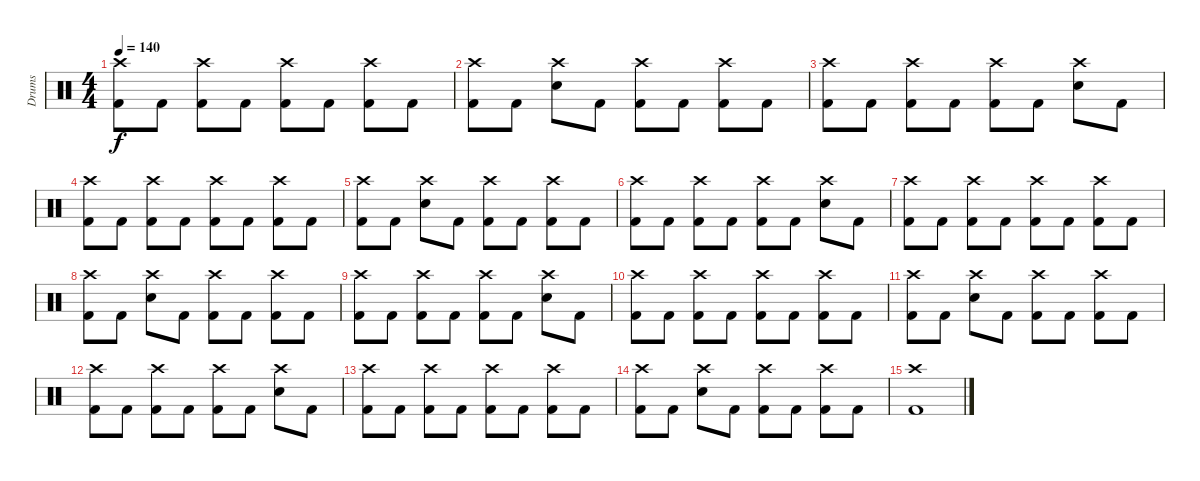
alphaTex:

\track ("Drums" "Drums") {instrument percussion}
\staff {score}
\articulation defaults
\ts (4 4)
\tempo 140
\clef neutral
\ks c
("Kick (hit) 2" "Crash high (hit)").8{dy f} "Kick (hit) 2".8 ("Kick (hit) 2" "Crash high (hit)").8 "Kick (hit) 2".8 ("Kick (hit) 2" "Crash high (hit)").8 "Kick (hit) 2".8 ("Kick (hit) 2" "Crash high (hit)").8 "Kick (hit) 2".8 |
("Kick (hit) 2" "Crash high (hit)").8 "Kick (hit) 2".8 ("Crash high (hit)" "Electric Snare (hit)").8 "Kick (hit) 2".8 ("Kick (hit) 2" "Crash high (hit)").8 "Kick (hit) 2".8 ("Kick (hit) 2" "Crash high (hit)").8 "Kick (hit) 2".8 |
("Kick (hit) 2" "Crash high (hit)").8 "Kick (hit) 2".8 ("Kick (hit) 2" "Crash high (hit)").8 "Kick (hit) 2".8 ("Kick (hit) 2" "Crash high (hit)").8 "Kick (hit) 2".8 ("Crash high (hit)" "Electric Snare (hit)").8 "Kick (hit) 2".8 |
("Kick (hit) 2" "Crash high (hit)").8 "Kick (hit) 2".8 ("Kick (hit) 2" "Crash high (hit)").8 "Kick (hit) 2".8 ("Kick (hit) 2" "Crash high (hit)").8 "Kick (hit) 2".8 ("Kick (hit) 2" "Crash high (hit)").8 "Kick (hit) 2".8 |
("Kick (hit) 2" "Crash high (hit)").8 "Kick (hit) 2".8 ("Crash high (hit)" "Electric Snare (hit)").8 "Kick (hit) 2".8 ("Kick (hit) 2" "Crash high (hit)").8 "Kick (hit) 2".8 ("Kick (hit) 2" "Crash high (hit)").8 "Kick (hit) 2".8 |
("Kick (hit) 2" "Crash high (hit)").8 "Kick (hit) 2".8 ("Kick (hit) 2" "Crash high (hit)").8 "Kick (hit) 2".8 ("Kick (hit) 2" "Crash high (hit)").8 "Kick (hit) 2".8 ("Crash high (hit)" "Electric Snare (hit)").8 "Kick (hit) 2".8 |
("Kick (hit) 2" "Crash high (hit)").8 "Kick (hit) 2".8 ("Kick (hit) 2" "Crash high (hit)").8 "Kick (hit) 2".8 ("Kick (hit) 2" "Crash high (hit)").8 "Kick (hit) 2".8 ("Kick (hit) 2" "Crash high (hit)").8 "Kick (hit) 2".8 |
("Kick (hit) 2" "Crash high (hit)").8 "Kick (hit) 2".8 ("Crash high (hit)" "Electric Snare (hit)").8 "Kick (hit) 2".8 ("Kick (hit) 2" "Crash high (hit)").8 "Kick (hit) 2".8 ("Kick (hit) 2" "Crash high (hit)").8 "Kick (hit) 2".8 |
("Kick (hit) 2" "Crash high (hit)").8 "Kick (hit) 2".8 ("Kick (hit) 2" "Crash high (hit)").8 "Kick (hit) 2".8 ("Kick (hit) 2" "Crash high (hit)").8 "Kick (hit) 2".8 ("Crash high (hit)" "Electric Snare (hit)").8 "Kick (hit) 2".8 |
("Kick (hit) 2" "Crash high (hit)").8 "Kick (hit) 2".8 ("Kick (hit) 2" "Crash high (hit)").8 "Kick (hit) 2".8 ("Kick (hit) 2" "Crash high (hit)").8 "Kick (hit) 2".8 ("Kick (hit) 2" "Crash high (hit)").8 "Kick (hit) 2".8 |
("Kick (hit) 2" "Crash high (hit)").8 "Kick (hit) 2".8 ("Crash high (hit)" "Electric Snare (hit)").8 "Kick (hit) 2".8 ("Kick (hit) 2" "Crash high (hit)").8 "Kick (hit) 2".8 ("Kick (hit) 2" "Crash high (hit)").8 "Kick (hit) 2".8 |
("Kick (hit) 2" "Crash high (hit)").8 "Kick (hit) 2".8 ("Kick (hit) 2" "Crash high (hit)").8 "Kick (hit) 2".8 ("Kick (hit) 2" "Crash high (hit)").8 "Kick (hit) 2".8 ("Crash high (hit)" "Electric Snare (hit)").8 "Kick (hit) 2".8 |
("Kick (hit) 2" "Crash high (hit)").8 "Kick (hit) 2".8 ("Kick (hit) 2" "Crash high (hit)").8 "Kick (hit) 2".8 ("Kick (hit) 2" "Crash high (hit)").8 "Kick (hit) 2".8 ("Kick (hit) 2" "Crash high (hit)").8 "Kick (hit) 2".8 |
("Kick (hit) 2" "Crash high (hit)").8 "Kick (hit) 2".8 ("Crash high (hit)" "Electric Snare (hit)").8 "Kick (hit) 2".8 ("Kick (hit) 2" "Crash high (hit)").8 "Kick (hit) 2".8 ("Kick (hit) 2" "Crash high (hit)").8 "Kick (hit) 2".8 |
("Kick (hit) 2" "Crash high (hit)").1
